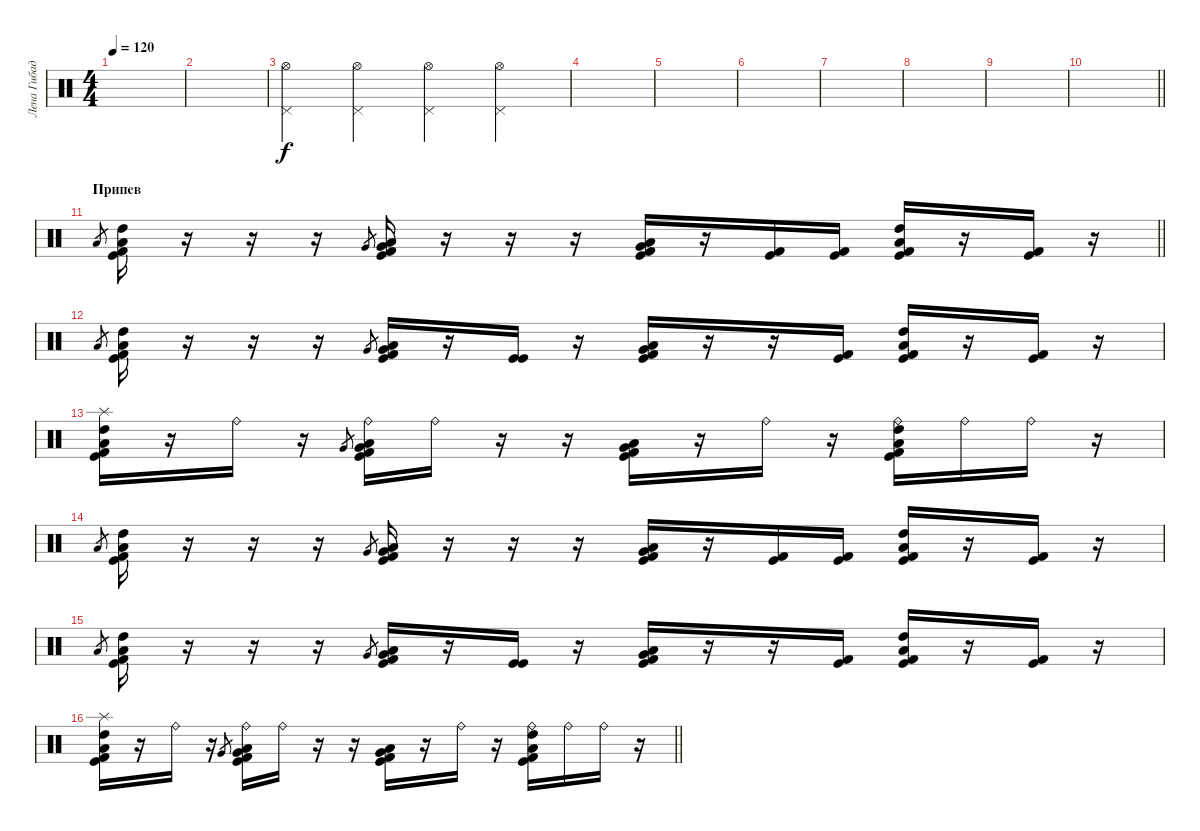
\track ("Лена Гибадулина" "Лена Гибад") {instrument percussion}
\staff {score}
\articulation defaults
\ts (4 4)
\tempo 120
\clef neutral
\ks c
|
|
("Hi-Hat (open)" "Pedal Hi-Hat (hit)").4 ("Pedal Hi-Hat (hit)" "Hi-Hat (open)").4 ("Hi-Hat (open)" "Pedal Hi-Hat (hit)").4 ("Pedal Hi-Hat (hit)" "Hi-Hat (open)").4 |
|
|
|
|
|
|
\barLineRight lightlight
|
\section ("" "Припев")
\barLineRight lightlight "Low Tom (hit)".8{gr}
("Kick (hit)" "Kick (hit) 2" "High Tom (hit)" "Low Tom (hit)").16 r.16 r.16 r.16 "Very Low Tom (hit)".8{gr} ("Kick (hit)" "Kick (hit) 2" "Very Low Tom (hit)" "Low Tom (hit)").16 r.16 r.16 r.16 ("Kick (hit)" "Kick (hit) 2" "Low Floor Tom (hit)" "Very Low Tom (hit)").16 r.16 ("Kick (hit)" "Kick (hit) 2").16 ("Kick (hit)" "Kick (hit) 2").16 ("Kick (hit)" "Kick (hit) 2" "Low Tom (hit)" "High Tom (hit)").16 r.16 ("Kick (hit)" "Kick (hit) 2").16 r.16 |
"Low Tom (hit)".8{gr} ("Kick (hit)" "Kick (hit) 2" "High Tom (hit)" "Low Tom (hit)").16 r.16 r.16 r.16 "Very Low Tom (hit)".8{gr} ("Kick (hit)" "Kick (hit) 2" "Very Low Tom (hit)" "Low Tom (hit)").16 r.16 ("Kick (hit)" "Kick (hit)").16 r.16 ("Kick (hit)" "Kick (hit) 2" "Low Floor Tom (hit)" "Very Low Tom (hit)").16 r.16 r.16 ("Kick (hit) 2" "Kick (hit)").16 ("Kick (hit)" "Kick (hit) 2" "Low Tom (hit)" "High Tom (hit)").16 r.16 ("Kick (hit)" "Kick (hit) 2").16 r.16 |
("Splash (hit)" "Kick (hit)" "Kick (hit) 2" "High Tom (hit)" "Low Tom (hit)").16 r.16 "Ride (bell)".16 r.16 "Very Low Tom (hit)".8{gr} ("Ride (bell)" "Kick (hit)" "Kick (hit) 2" "Very Low Tom (hit)" "Low Tom (hit)").16 "Ride (bell)".16 r.16 r.16 ("Kick (hit)" "Kick (hit) 2" "Low Floor Tom (hit)" "Very Low Tom (hit)").16 r.16 "Ride (bell)".16 r.16 ("Ride (bell)" "Kick (hit)" "Kick (hit) 2" "Low Tom (hit)" "High Tom (hit)").16 "Ride (bell)".16 "Ride (bell)".16 r.16 |
"Low Tom (hit)".8{gr} ("Kick (hit)" "Kick (hit) 2" "High Tom (hit)" "Low Tom (hit)").16 r.16 r.16 r.16 "Very Low Tom (hit)".8{gr} ("Kick (hit)" "Kick (hit) 2" "Very Low Tom (hit)" "Low Tom (hit)").16 r.16 r.16 r.16 ("Kick (hit)" "Kick (hit) 2" "Low Floor Tom (hit)" "Very Low Tom (hit)").16 r.16 ("Kick (hit)" "Kick (hit) 2").16 ("Kick (hit)" "Kick (hit) 2").16 ("Kick (hit)" "Kick (hit) 2" "Low Tom (hit)" "High Tom (hit)").16 r.16 ("Kick (hit)" "Kick (hit) 2").16 r.16 |
"Low Tom (hit)".8{gr} ("Kick (hit)" "Kick (hit) 2" "High Tom (hit)" "Low Tom (hit)").16 r.16 r.16 r.16 "Very Low Tom (hit)".8{gr} ("Kick (hit)" "Kick (hit) 2" "Very Low Tom (hit)" "Low Tom (hit)").16 r.16 ("Kick (hit)" "Kick (hit)").16 r.16 ("Kick (hit)" "Kick (hit) 2" "Low Floor Tom (hit)" "Very Low Tom (hit)").16 r.16 r.16 ("Kick (hit) 2" "Kick (hit)").16 ("Kick (hit)" "Kick (hit) 2" "Low Tom (hit)" "High Tom (hit)").16 r.16 ("Kick (hit)" "Kick (hit) 2").16 r.16 |
\barLineRight lightlight
("Splash (hit)" "Kick (hit)" "Kick (hit) 2" "High Tom (hit)" "Low Tom (hit)").16 r.16 "Ride (bell)".16 r.16 "Very Low Tom (hit)".8{gr} ("Ride (bell)" "Kick (hit)" "Kick (hit) 2" "Very Low Tom (hit)" "Low Tom (hit)").16 "Ride (bell)".16 r.16 r.16 ("Kick (hit)" "Kick (hit) 2" "Low Floor Tom (hit)" "Very Low Tom (hit)").16 r.16 "Ride (bell)".16 r.16 ("Ride (bell)" "Kick (hit)" "Kick (hit) 2" "Low Tom (hit)" "High Tom (hit)").16 "Ride (bell)".16 "Ride (bell)".16 r.16
